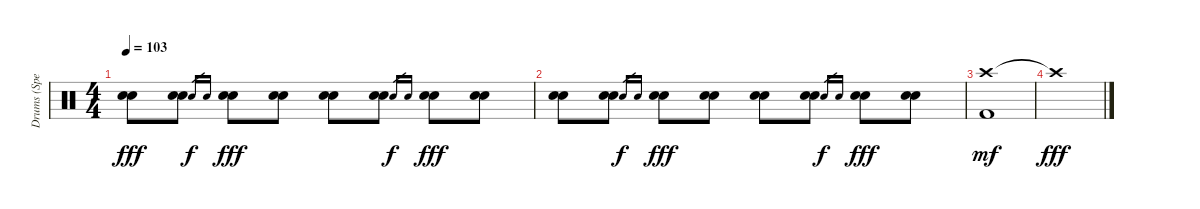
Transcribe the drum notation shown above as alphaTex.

\track ("Drums (Spencer Dryden)" "Drums (Spe") {instrument percussion}
\staff {score}
\articulation defaults
\ts (4 4)
\tempo 103
\clef neutral
\ks c
("Snare (hit) 2" "Snare (hit) 2").8{dy fff} ("Snare (hit) 2" "Snare (hit) 2").8 "Snare (hit) 2".16{gr dy f} "Snare (hit) 2".16{gr} ("Snare (hit) 2" "Snare (hit) 2").8{dy fff} ("Snare (hit) 2" "Snare (hit) 2").8 ("Snare (hit) 2" "Snare (hit) 2").8 ("Snare (hit) 2" "Snare (hit) 2").8 "Snare (hit) 2".16{gr dy f} "Snare (hit) 2".16{gr} ("Snare (hit) 2" "Snare (hit) 2").8{dy fff} ("Snare (hit) 2" "Snare (hit) 2").8 |
("Snare (hit) 2" "Snare (hit) 2").8 ("Snare (hit) 2" "Snare (hit) 2").8 "Snare (hit) 2".16{gr dy f} "Snare (hit) 2".16{gr} ("Snare (hit) 2" "Snare (hit) 2").8{dy fff} ("Snare (hit) 2" "Snare (hit) 2").8 ("Snare (hit) 2" "Snare (hit) 2").8 ("Snare (hit) 2" "Snare (hit) 2").8 "Snare (hit) 2".16{gr dy f} "Snare (hit) 2".16{gr} ("Snare (hit) 2" "Snare (hit) 2").8{dy fff} ("Snare (hit) 2" "Snare (hit) 2").8 |
("Crash high (hit)" "Kick (hit) 2").1{dy mf} |
"Crash high (hit)"{t}.1{dy fff}
